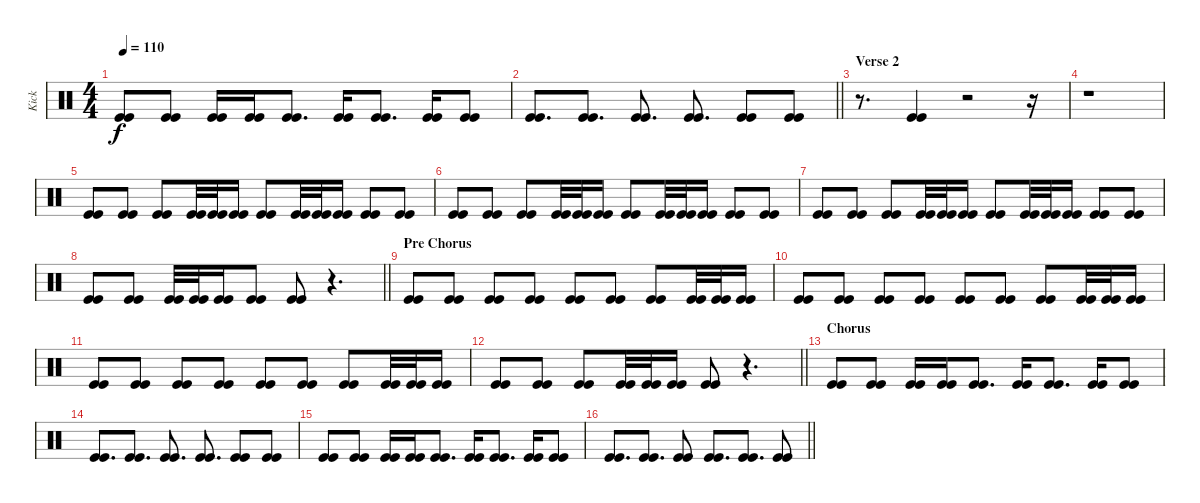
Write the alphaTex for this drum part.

\track ("Kick" "Kick") {instrument percussion}
\staff {score}
\articulation defaults
\ts (4 4)
\tempo 110
\clef neutral
\ks c
("Kick (hit)" "Kick (hit)").8{dy f} ("Kick (hit)" "Kick (hit)").8 ("Kick (hit)" "Kick (hit)").16 ("Kick (hit)" "Kick (hit)").16 ("Kick (hit)" "Kick (hit)").8{d} ("Kick (hit)" "Kick (hit)").16 ("Kick (hit)" "Kick (hit)").8{d} ("Kick (hit)" "Kick (hit)").16 ("Kick (hit)" "Kick (hit)").8 |
\barLineRight lightlight
("Kick (hit)" "Kick (hit)").8{d} ("Kick (hit)" "Kick (hit)").8{d} ("Kick (hit)" "Kick (hit)").8{d} ("Kick (hit)" "Kick (hit)").8{d} ("Kick (hit)" "Kick (hit)").8 ("Kick (hit)" "Kick (hit)").8 |
\section ("" "Verse 2")
r.8{d} ("Kick (hit)" "Kick (hit)").4 r.2 r.16 |
r.1 |
("Kick (hit)" "Kick (hit)").8 ("Kick (hit)" "Kick (hit)").8 ("Kick (hit)" "Kick (hit)").8 ("Kick (hit)" "Kick (hit)").32 ("Kick (hit)" "Kick (hit)").32 ("Kick (hit)" "Kick (hit)").16 ("Kick (hit)" "Kick (hit)").8 ("Kick (hit)" "Kick (hit)").32 ("Kick (hit)" "Kick (hit)").32 ("Kick (hit)" "Kick (hit)").16 ("Kick (hit)" "Kick (hit)").8 ("Kick (hit)" "Kick (hit)").8 |
("Kick (hit)" "Kick (hit)").8 ("Kick (hit)" "Kick (hit)").8 ("Kick (hit)" "Kick (hit)").8 ("Kick (hit)" "Kick (hit)").32 ("Kick (hit)" "Kick (hit)").32 ("Kick (hit)" "Kick (hit)").16 ("Kick (hit)" "Kick (hit)").8 ("Kick (hit)" "Kick (hit)").32 ("Kick (hit)" "Kick (hit)").32 ("Kick (hit)" "Kick (hit)").16 ("Kick (hit)" "Kick (hit)").8 ("Kick (hit)" "Kick (hit)").8 |
("Kick (hit)" "Kick (hit)").8 ("Kick (hit)" "Kick (hit)").8 ("Kick (hit)" "Kick (hit)").8 ("Kick (hit)" "Kick (hit)").32 ("Kick (hit)" "Kick (hit)").32 ("Kick (hit)" "Kick (hit)").16 ("Kick (hit)" "Kick (hit)").8 ("Kick (hit)" "Kick (hit)").32 ("Kick (hit)" "Kick (hit)").32 ("Kick (hit)" "Kick (hit)").16 ("Kick (hit)" "Kick (hit)").8 ("Kick (hit)" "Kick (hit)").8 |
\barLineRight lightlight
("Kick (hit)" "Kick (hit)").8 ("Kick (hit)" "Kick (hit)").8 ("Kick (hit)" "Kick (hit)").32 ("Kick (hit)" "Kick (hit)").32 ("Kick (hit)" "Kick (hit)").16 ("Kick (hit)" "Kick (hit)").8 ("Kick (hit)" "Kick (hit)").8 r.4{d} |
\section ("" "Pre Chorus")
("Kick (hit)" "Kick (hit)").8 ("Kick (hit)" "Kick (hit)").8 ("Kick (hit)" "Kick (hit)").8 ("Kick (hit)" "Kick (hit)").8 ("Kick (hit)" "Kick (hit)").8 ("Kick (hit)" "Kick (hit)").8 ("Kick (hit)" "Kick (hit)").8 ("Kick (hit)" "Kick (hit)").32 ("Kick (hit)" "Kick (hit)").32 ("Kick (hit)" "Kick (hit)").16 |
("Kick (hit)" "Kick (hit)").8 ("Kick (hit)" "Kick (hit)").8 ("Kick (hit)" "Kick (hit)").8 ("Kick (hit)" "Kick (hit)").8 ("Kick (hit)" "Kick (hit)").8 ("Kick (hit)" "Kick (hit)").8 ("Kick (hit)" "Kick (hit)").8 ("Kick (hit)" "Kick (hit)").32 ("Kick (hit)" "Kick (hit)").32 ("Kick (hit)" "Kick (hit)").16 |
("Kick (hit)" "Kick (hit)").8 ("Kick (hit)" "Kick (hit)").8 ("Kick (hit)" "Kick (hit)").8 ("Kick (hit)" "Kick (hit)").8 ("Kick (hit)" "Kick (hit)").8 ("Kick (hit)" "Kick (hit)").8 ("Kick (hit)" "Kick (hit)").8 ("Kick (hit)" "Kick (hit)").32 ("Kick (hit)" "Kick (hit)").32 ("Kick (hit)" "Kick (hit)").16 |
\barLineRight lightlight
("Kick (hit)" "Kick (hit)").8 ("Kick (hit)" "Kick (hit)").8 ("Kick (hit)" "Kick (hit)").8 ("Kick (hit)" "Kick (hit)").32 ("Kick (hit)" "Kick (hit)").32 ("Kick (hit)" "Kick (hit)").16 ("Kick (hit)" "Kick (hit)").8 r.4{d} |
\section ("" "Chorus")
("Kick (hit)" "Kick (hit)").8 ("Kick (hit)" "Kick (hit)").8 ("Kick (hit)" "Kick (hit)").16 ("Kick (hit)" "Kick (hit)").16 ("Kick (hit)" "Kick (hit)").8{d} ("Kick (hit)" "Kick (hit)").16 ("Kick (hit)" "Kick (hit)").8{d} ("Kick (hit)" "Kick (hit)").16 ("Kick (hit)" "Kick (hit)").8 |
("Kick (hit)" "Kick (hit)").8{d} ("Kick (hit)" "Kick (hit)").8{d} ("Kick (hit)" "Kick (hit)").8{d} ("Kick (hit)" "Kick (hit)").8{d} ("Kick (hit)" "Kick (hit)").8 ("Kick (hit)" "Kick (hit)").8 |
("Kick (hit)" "Kick (hit)").8 ("Kick (hit)" "Kick (hit)").8 ("Kick (hit)" "Kick (hit)").16 ("Kick (hit)" "Kick (hit)").16 ("Kick (hit)" "Kick (hit)").8{d} ("Kick (hit)" "Kick (hit)").16 ("Kick (hit)" "Kick (hit)").8{d} ("Kick (hit)" "Kick (hit)").16 ("Kick (hit)" "Kick (hit)").8 |
\barLineRight lightlight
("Kick (hit)" "Kick (hit)").8{d} ("Kick (hit)" "Kick (hit)").8{d} ("Kick (hit)" "Kick (hit)").8 ("Kick (hit)" "Kick (hit)").8{d} ("Kick (hit)" "Kick (hit)").8{d} ("Kick (hit)" "Kick (hit)").8
